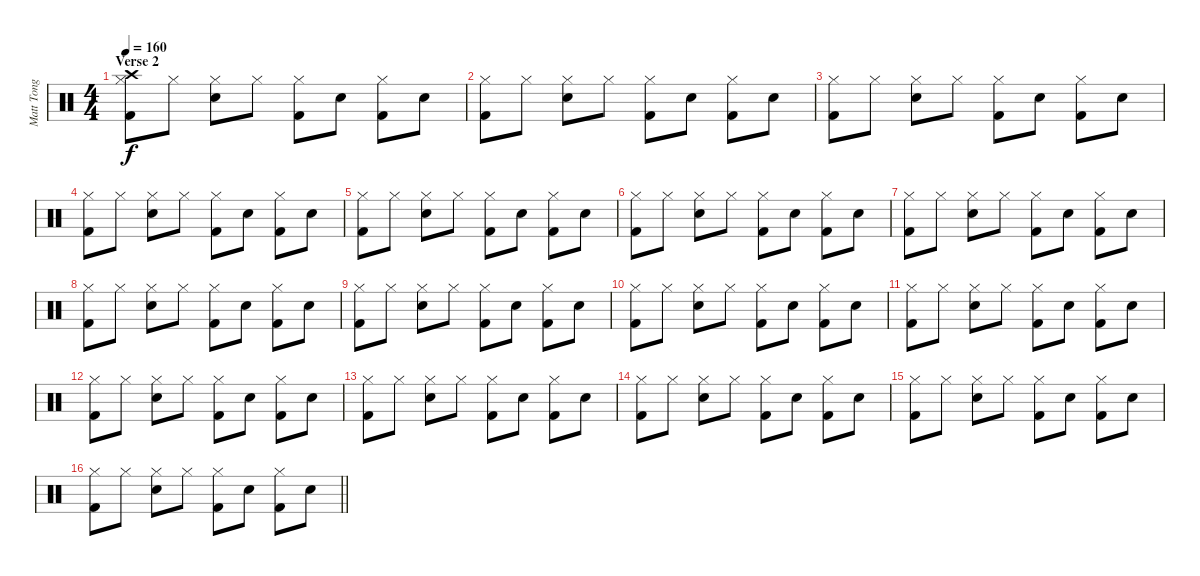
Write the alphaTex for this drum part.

\track ("Matt Tong" "Matt Tong") {instrument percussion}
\staff {score}
\articulation defaults
\ts (4 4)
\section ("" "Verse 2")
\tempo 160
\clef neutral
\ks c
("Crash high (hit)" "Hi-Hat (closed)" "Kick (hit) 2").8{dy f} "Hi-Hat (closed)".8 ("Hi-Hat (closed)" "Electric Snare (hit)").8 "Hi-Hat (closed)".8 ("Hi-Hat (closed)" "Kick (hit) 2").8 "Electric Snare (hit)".8 ("Hi-Hat (closed)" "Kick (hit) 2").8 "Electric Snare (hit)".8 |
("Hi-Hat (closed)" "Kick (hit) 2").8 "Hi-Hat (closed)".8 ("Hi-Hat (closed)" "Electric Snare (hit)").8 "Hi-Hat (closed)".8 ("Hi-Hat (closed)" "Kick (hit) 2").8 "Electric Snare (hit)".8 ("Hi-Hat (closed)" "Kick (hit) 2").8 "Electric Snare (hit)".8 |
("Hi-Hat (closed)" "Kick (hit) 2").8 "Hi-Hat (closed)".8 ("Hi-Hat (closed)" "Electric Snare (hit)").8 "Hi-Hat (closed)".8 ("Hi-Hat (closed)" "Kick (hit) 2").8 "Electric Snare (hit)".8 ("Hi-Hat (closed)" "Kick (hit) 2").8 "Electric Snare (hit)".8 |
("Hi-Hat (closed)" "Kick (hit) 2").8 "Hi-Hat (closed)".8 ("Hi-Hat (closed)" "Electric Snare (hit)").8 "Hi-Hat (closed)".8 ("Hi-Hat (closed)" "Kick (hit) 2").8 "Electric Snare (hit)".8 ("Hi-Hat (closed)" "Kick (hit) 2").8 "Electric Snare (hit)".8 |
("Hi-Hat (closed)" "Kick (hit) 2").8 "Hi-Hat (closed)".8 ("Hi-Hat (closed)" "Electric Snare (hit)").8 "Hi-Hat (closed)".8 ("Hi-Hat (closed)" "Kick (hit) 2").8 "Electric Snare (hit)".8 ("Hi-Hat (closed)" "Kick (hit) 2").8 "Electric Snare (hit)".8 |
("Hi-Hat (closed)" "Kick (hit) 2").8 "Hi-Hat (closed)".8 ("Hi-Hat (closed)" "Electric Snare (hit)").8 "Hi-Hat (closed)".8 ("Hi-Hat (closed)" "Kick (hit) 2").8 "Electric Snare (hit)".8 ("Hi-Hat (closed)" "Kick (hit) 2").8 "Electric Snare (hit)".8 |
("Hi-Hat (closed)" "Kick (hit) 2").8 "Hi-Hat (closed)".8 ("Hi-Hat (closed)" "Electric Snare (hit)").8 "Hi-Hat (closed)".8 ("Hi-Hat (closed)" "Kick (hit) 2").8 "Electric Snare (hit)".8 ("Hi-Hat (closed)" "Kick (hit) 2").8 "Electric Snare (hit)".8 |
("Hi-Hat (closed)" "Kick (hit) 2").8 "Hi-Hat (closed)".8 ("Hi-Hat (closed)" "Electric Snare (hit)").8 "Hi-Hat (closed)".8 ("Hi-Hat (closed)" "Kick (hit) 2").8 "Electric Snare (hit)".8 ("Hi-Hat (closed)" "Kick (hit) 2").8 "Electric Snare (hit)".8 |
("Hi-Hat (closed)" "Kick (hit) 2").8 "Hi-Hat (closed)".8 ("Hi-Hat (closed)" "Electric Snare (hit)").8 "Hi-Hat (closed)".8 ("Hi-Hat (closed)" "Kick (hit) 2").8 "Electric Snare (hit)".8 ("Hi-Hat (closed)" "Kick (hit) 2").8 "Electric Snare (hit)".8 |
("Hi-Hat (closed)" "Kick (hit) 2").8 "Hi-Hat (closed)".8 ("Hi-Hat (closed)" "Electric Snare (hit)").8 "Hi-Hat (closed)".8 ("Hi-Hat (closed)" "Kick (hit) 2").8 "Electric Snare (hit)".8 ("Hi-Hat (closed)" "Kick (hit) 2").8 "Electric Snare (hit)".8 |
("Hi-Hat (closed)" "Kick (hit) 2").8 "Hi-Hat (closed)".8 ("Hi-Hat (closed)" "Electric Snare (hit)").8 "Hi-Hat (closed)".8 ("Hi-Hat (closed)" "Kick (hit) 2").8 "Electric Snare (hit)".8 ("Hi-Hat (closed)" "Kick (hit) 2").8 "Electric Snare (hit)".8 |
("Hi-Hat (closed)" "Kick (hit) 2").8 "Hi-Hat (closed)".8 ("Hi-Hat (closed)" "Electric Snare (hit)").8 "Hi-Hat (closed)".8 ("Hi-Hat (closed)" "Kick (hit) 2").8 "Electric Snare (hit)".8 ("Hi-Hat (closed)" "Kick (hit) 2").8 "Electric Snare (hit)".8 |
("Hi-Hat (closed)" "Kick (hit) 2").8 "Hi-Hat (closed)".8 ("Hi-Hat (closed)" "Electric Snare (hit)").8 "Hi-Hat (closed)".8 ("Hi-Hat (closed)" "Kick (hit) 2").8 "Electric Snare (hit)".8 ("Hi-Hat (closed)" "Kick (hit) 2").8 "Electric Snare (hit)".8 |
("Hi-Hat (closed)" "Kick (hit) 2").8 "Hi-Hat (closed)".8 ("Hi-Hat (closed)" "Electric Snare (hit)").8 "Hi-Hat (closed)".8 ("Hi-Hat (closed)" "Kick (hit) 2").8 "Electric Snare (hit)".8 ("Hi-Hat (closed)" "Kick (hit) 2").8 "Electric Snare (hit)".8 |
("Hi-Hat (closed)" "Kick (hit) 2").8 "Hi-Hat (closed)".8 ("Hi-Hat (closed)" "Electric Snare (hit)").8 "Hi-Hat (closed)".8 ("Hi-Hat (closed)" "Kick (hit) 2").8 "Electric Snare (hit)".8 ("Hi-Hat (closed)" "Kick (hit) 2").8 "Electric Snare (hit)".8 |
\barLineRight lightlight
("Hi-Hat (closed)" "Kick (hit) 2").8 "Hi-Hat (closed)".8 ("Hi-Hat (closed)" "Electric Snare (hit)").8 "Hi-Hat (closed)".8 ("Hi-Hat (closed)" "Kick (hit) 2").8 "Electric Snare (hit)".8 ("Hi-Hat (closed)" "Kick (hit) 2").8 "Electric Snare (hit)".8
